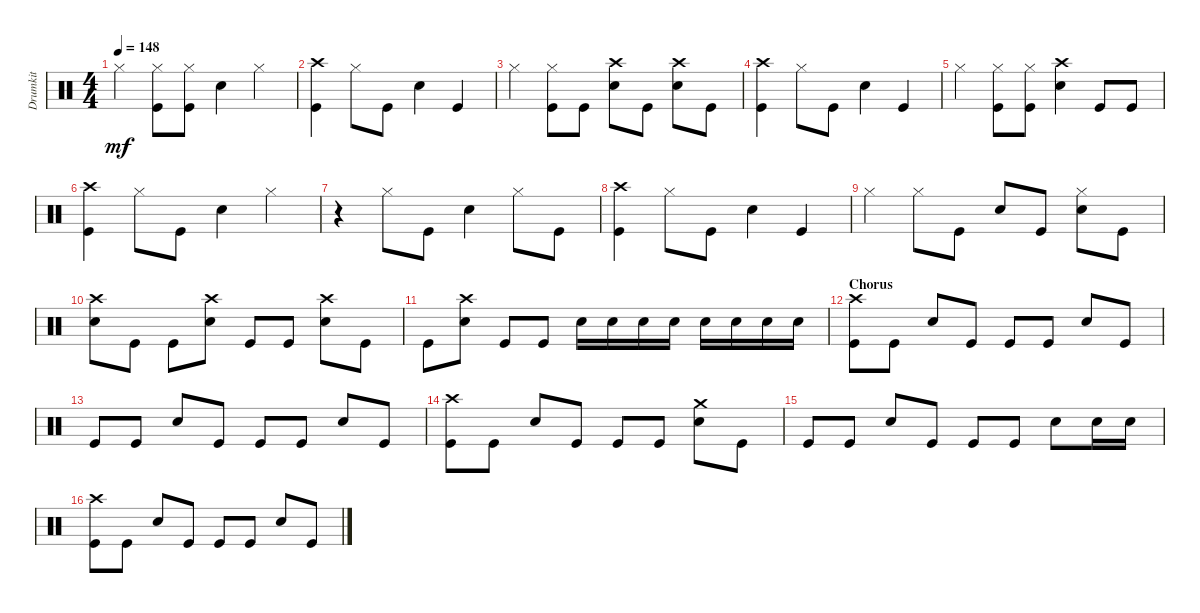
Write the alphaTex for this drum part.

\track ("Drumkit" "Drumkit") {instrument percussion}
\staff {score}
\articulation defaults
\ts (4 4)
\tempo 148
\clef neutral
\ks c "Hi-Hat (closed)".4{dy mf}
("Hi-Hat (closed)" "Kick (hit)").8 ("Hi-Hat (closed)" "Kick (hit)").8 "Snare (hit) 2".4 "Hi-Hat (closed)".4 |
("Crash high (hit)" "Kick (hit)").4 "Hi-Hat (closed)".8 "Kick (hit)".8 "Snare (hit) 2".4 "Kick (hit)".4 |
"Hi-Hat (closed)".4 ("Hi-Hat (closed)" "Kick (hit)").8 "Kick (hit)".8 ("Snare (hit) 2" "Crash high (hit)").8 "Kick (hit)".8 ("Snare (hit) 2" "Crash high (hit)").8 "Kick (hit)".8 |
("Kick (hit)" "Crash high (hit)").4 "Hi-Hat (closed)".8 "Kick (hit)".8 "Snare (hit) 2".4 "Kick (hit)".4 |
"Hi-Hat (closed)".4 ("Hi-Hat (closed)" "Kick (hit)").8 ("Hi-Hat (closed)" "Kick (hit)").8 ("Snare (hit) 2" "Crash high (hit)").4 "Kick (hit)".8 "Kick (hit)".8 |
("Kick (hit)" "Crash high (hit)").4 "Hi-Hat (closed)".8 "Kick (hit)".8 "Snare (hit) 2".4 "Hi-Hat (closed)".4 |
r.4 "Hi-Hat (closed)".8 "Kick (hit)".8 "Snare (hit) 2".4 "Hi-Hat (closed)".8 "Kick (hit)".8 |
("Crash high (hit)" "Kick (hit)").4 "Hi-Hat (closed)".8 "Kick (hit)".8 "Snare (hit) 2".4 "Kick (hit)".4 |
"Hi-Hat (closed)".4 "Hi-Hat (closed)".8 "Kick (hit)".8 "Snare (hit) 2".8 "Kick (hit)".8 ("Snare (hit) 2" "Hi-Hat (closed)").8 "Kick (hit)".8 |
("Crash high (hit)" "Snare (hit) 2").8 "Kick (hit)".8 "Kick (hit)".8 ("Crash high (hit)" "Snare (hit) 2").8 "Kick (hit)".8 "Kick (hit)".8 ("Crash high (hit)" "Snare (hit) 2").8 "Kick (hit)".8 |
"Kick (hit)".8 ("Crash high (hit)" "Snare (hit) 2").8 "Kick (hit)".8 "Kick (hit)".8 "Snare (hit) 2".16 "Snare (hit) 2".16 "Snare (hit) 2".16 "Snare (hit) 2".16 "Snare (hit) 2".16 "Snare (hit) 2".16 "Snare (hit) 2".16 "Snare (hit) 2".16 |
\section ("" "Chorus")
("Kick (hit)" "Crash high (hit)").8 "Kick (hit)".8 "Snare (hit) 2".8 "Kick (hit)".8 "Kick (hit)".8 "Kick (hit)".8 "Snare (hit) 2".8 "Kick (hit)".8 |
"Kick (hit)".8 "Kick (hit)".8 "Snare (hit) 2".8 "Kick (hit)".8 "Kick (hit)".8 "Kick (hit)".8 "Snare (hit) 2".8 "Kick (hit)".8 |
("Kick (hit)" "Crash high (hit)").8 "Kick (hit)".8 "Snare (hit) 2".8 "Kick (hit)".8 "Kick (hit)".8 "Kick (hit)".8 ("Snare (hit) 2" "Crash medium (hit)").8 "Kick (hit)".8 |
"Kick (hit)".8 "Kick (hit)".8 "Snare (hit) 2".8 "Kick (hit)".8 "Kick (hit)".8 "Kick (hit)".8 "Snare (hit) 2".8 "Snare (hit) 2".16 "Snare (hit) 2".16 |
("Kick (hit)" "Crash high (hit)").8 "Kick (hit)".8 "Snare (hit) 2".8 "Kick (hit)".8 "Kick (hit)".8 "Kick (hit)".8 "Snare (hit) 2".8 "Kick (hit)".8
